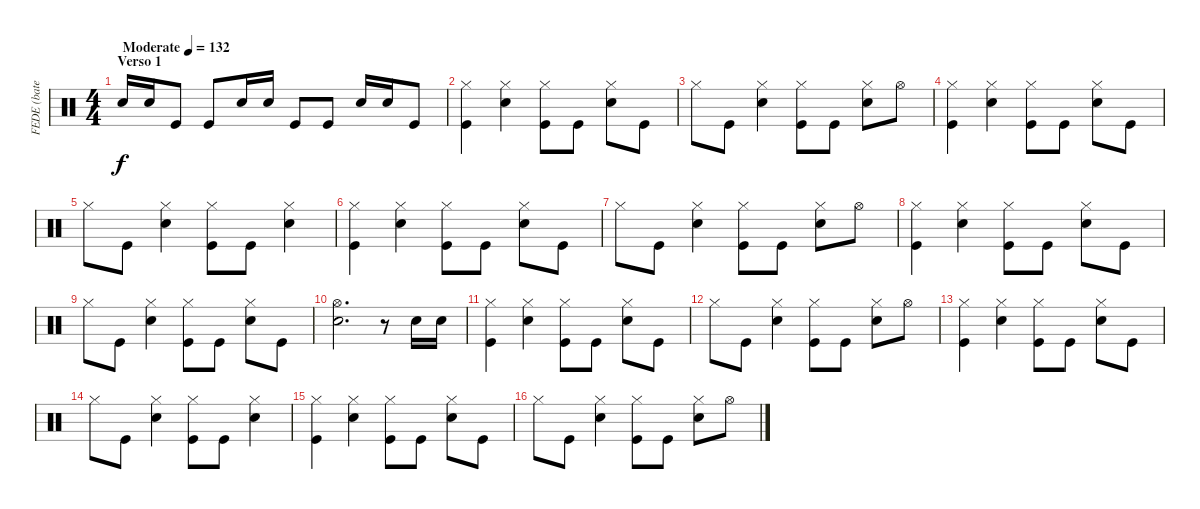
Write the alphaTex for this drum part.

\track ("FEDE (bateria)" "FEDE (bate") {instrument percussion}
\staff {score}
\articulation defaults
\ts (4 4)
\section ("" "Verso 1")
\tempo (132 "Moderate")
\clef neutral
\ks c "Snare (hit) 2".16{dy f} "Snare (hit) 2".16 "Kick (hit)".8 "Kick (hit)".8 "Snare (hit) 2".16 "Snare (hit) 2".16 "Kick (hit)".8 "Kick (hit)".8 "Snare (hit) 2".16 "Snare (hit) 2".16 "Kick (hit)".8
|
("Hi-Hat (closed)" "Kick (hit)").4 ("Hi-Hat (closed)" "Snare (hit) 2").4 ("Hi-Hat (closed)" "Kick (hit)").8 "Kick (hit)".8 ("Hi-Hat (closed)" "Snare (hit) 2").8 "Kick (hit)".8 |
"Hi-Hat (closed)".8 "Kick (hit)".8 ("Hi-Hat (closed)" "Snare (hit) 2").4 ("Hi-Hat (closed)" "Kick (hit)").8 "Kick (hit)".8 ("Hi-Hat (closed)" "Snare (hit) 2").8 "Hi-Hat (open)".8 |
("Hi-Hat (closed)" "Kick (hit)").4 ("Hi-Hat (closed)" "Snare (hit) 2").4 ("Hi-Hat (closed)" "Kick (hit)").8 "Kick (hit)".8 ("Hi-Hat (closed)" "Snare (hit) 2").8 "Kick (hit)".8 |
"Hi-Hat (closed)".8 "Kick (hit)".8 ("Hi-Hat (closed)" "Snare (hit) 2").4 ("Hi-Hat (closed)" "Kick (hit)").8 "Kick (hit)".8 ("Hi-Hat (closed)" "Snare (hit) 2").4 |
("Hi-Hat (closed)" "Kick (hit)").4 ("Hi-Hat (closed)" "Snare (hit) 2").4 ("Hi-Hat (closed)" "Kick (hit)").8 "Kick (hit)".8 ("Hi-Hat (closed)" "Snare (hit) 2").8 "Kick (hit)".8 |
"Hi-Hat (closed)".8 "Kick (hit)".8 ("Hi-Hat (closed)" "Snare (hit) 2").4 ("Hi-Hat (closed)" "Kick (hit)").8 "Kick (hit)".8 ("Hi-Hat (closed)" "Snare (hit) 2").8 "Hi-Hat (open)".8 |
("Hi-Hat (closed)" "Kick (hit)").4 ("Hi-Hat (closed)" "Snare (hit) 2").4 ("Hi-Hat (closed)" "Kick (hit)").8 "Kick (hit)".8 ("Hi-Hat (closed)" "Snare (hit) 2").8 "Kick (hit)".8 |
"Hi-Hat (closed)".8 "Kick (hit)".8 ("Hi-Hat (closed)" "Snare (hit) 2").4 ("Hi-Hat (closed)" "Kick (hit)").8 "Kick (hit)".8 ("Hi-Hat (closed)" "Snare (hit) 2").8 "Kick (hit)".8 |
("Hi-Hat (open)" "Snare (hit) 2").2{d} r.8 "Snare (hit) 2".16 "Snare (hit) 2".16 |
("Hi-Hat (closed)" "Kick (hit)").4 ("Hi-Hat (closed)" "Snare (hit) 2").4 ("Hi-Hat (closed)" "Kick (hit)").8 "Kick (hit)".8 ("Hi-Hat (closed)" "Snare (hit) 2").8 "Kick (hit)".8 |
"Hi-Hat (closed)".8 "Kick (hit)".8 ("Hi-Hat (closed)" "Snare (hit) 2").4 ("Hi-Hat (closed)" "Kick (hit)").8 "Kick (hit)".8 ("Hi-Hat (closed)" "Snare (hit) 2").8 "Hi-Hat (open)".8 |
("Hi-Hat (closed)" "Kick (hit)").4 ("Hi-Hat (closed)" "Snare (hit) 2").4 ("Hi-Hat (closed)" "Kick (hit)").8 "Kick (hit)".8 ("Hi-Hat (closed)" "Snare (hit) 2").8 "Kick (hit)".8 |
"Hi-Hat (closed)".8 "Kick (hit)".8 ("Hi-Hat (closed)" "Snare (hit) 2").4 ("Hi-Hat (closed)" "Kick (hit)").8 "Kick (hit)".8 ("Hi-Hat (closed)" "Snare (hit) 2").4 |
("Hi-Hat (closed)" "Kick (hit)").4 ("Hi-Hat (closed)" "Snare (hit) 2").4 ("Hi-Hat (closed)" "Kick (hit)").8 "Kick (hit)".8 ("Hi-Hat (closed)" "Snare (hit) 2").8 "Kick (hit)".8 |
"Hi-Hat (closed)".8 "Kick (hit)".8 ("Hi-Hat (closed)" "Snare (hit) 2").4 ("Hi-Hat (closed)" "Kick (hit)").8 "Kick (hit)".8 ("Hi-Hat (closed)" "Snare (hit) 2").8 "Hi-Hat (open)".8
